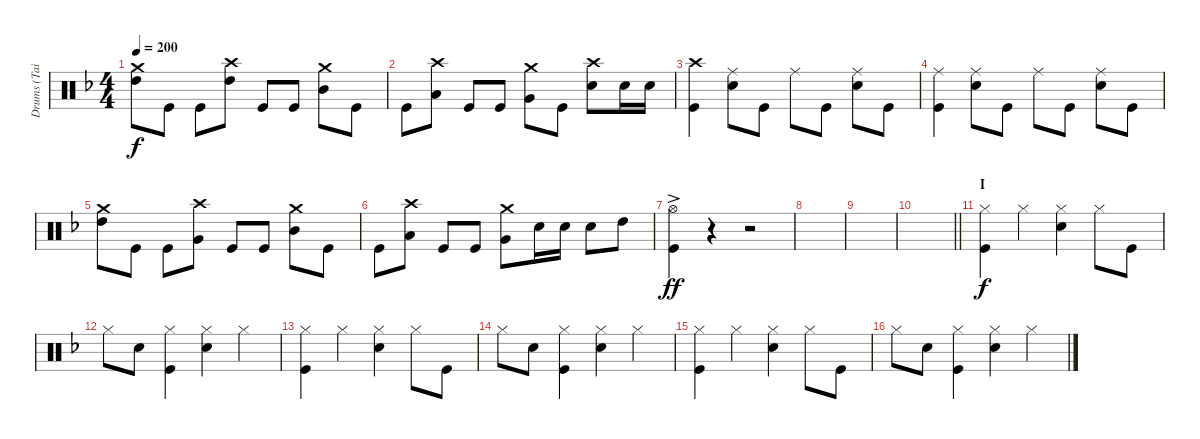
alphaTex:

\track ("Drums (Tainaka Ritsu)" "Drums (Tai") {instrument percussion}
\staff {score}
\articulation defaults
\ts (4 4)
\tempo 200
\clef neutral
\ks f
("Crash medium (hit)" "High Tom (hit)").8{dy f} "Kick (hit)".8 "Kick (hit)".8 ("Crash high (hit)" "High Tom (hit)").8 "Kick (hit)".8 "Kick (hit)".8 ("Crash medium (hit)" "Mid Tom (hit)").8 "Kick (hit)".8 |
"Kick (hit)".8 ("Crash high (hit)" "Low Tom (hit)").8 "Kick (hit)".8 "Kick (hit)".8 ("Crash medium (hit)" "Very Low Tom (hit)").8 "Kick (hit)".8 ("Crash high (hit)" "Snare (hit) 2").8 "Snare (hit) 2".16 "Snare (hit) 2".16 |
("Crash high (hit)" "Kick (hit)").4 ("Ride (middle)" "Snare (hit) 2").8 "Kick (hit)".8 "Ride (middle)".8 "Kick (hit)".8 ("Ride (middle)" "Snare (hit) 2").8 "Kick (hit)".8 |
("Ride (middle)" "Kick (hit)").4 ("Ride (middle)" "Snare (hit) 2").8 "Kick (hit)".8 "Ride (middle)".8 "Kick (hit)".8 ("Ride (middle)" "Snare (hit) 2").8 "Kick (hit)".8 |
("Crash medium (hit)" "High Tom (hit)").8 "Kick (hit)".8 "Kick (hit)".8 ("Crash high (hit)" "Very Low Tom (hit)").8 "Kick (hit)".8 "Kick (hit)".8 ("Crash medium (hit)" "Mid Tom (hit)").8 "Kick (hit)".8 |
"Kick (hit)".8 ("Crash high (hit)" "Low Tom (hit)").8 "Kick (hit)".8 "Kick (hit)".8 ("Crash medium (hit)" "Very Low Tom (hit)").8 "Snare (hit) 2".16 "Snare (hit) 2".16 "Snare (hit) 2".8 "High Tom (hit)".8 |
("Hi-Hat (open)"{ac} "Kick (hit)").4{dy ff} r.4 r.2 |
|
|
\barLineRight lightlight
|
\section ("" "I")
("Hi-Hat (closed)" "Kick (hit)").4{dy f} "Hi-Hat (closed)".4 ("Hi-Hat (closed)" "Snare (hit) 2").4 "Hi-Hat (closed)".8 "Kick (hit)".8 |
"Hi-Hat (closed)".8 "Snare (hit) 2".8 ("Hi-Hat (closed)" "Kick (hit)").4 ("Hi-Hat (closed)" "Snare (hit) 2").4 "Hi-Hat (closed)".4 |
("Hi-Hat (closed)" "Kick (hit)").4 "Hi-Hat (closed)".4 ("Hi-Hat (closed)" "Snare (hit) 2").4 "Hi-Hat (closed)".8 "Kick (hit)".8 |
"Hi-Hat (closed)".8 "Snare (hit) 2".8 ("Hi-Hat (closed)" "Kick (hit)").4 ("Hi-Hat (closed)" "Snare (hit) 2").4 "Hi-Hat (closed)".4 |
("Hi-Hat (closed)" "Kick (hit)").4 "Hi-Hat (closed)".4 ("Hi-Hat (closed)" "Snare (hit) 2").4 "Hi-Hat (closed)".8 "Kick (hit)".8 |
"Hi-Hat (closed)".8 "Snare (hit) 2".8 ("Hi-Hat (closed)" "Kick (hit)").4 ("Hi-Hat (closed)" "Snare (hit) 2").4 "Hi-Hat (closed)".4
